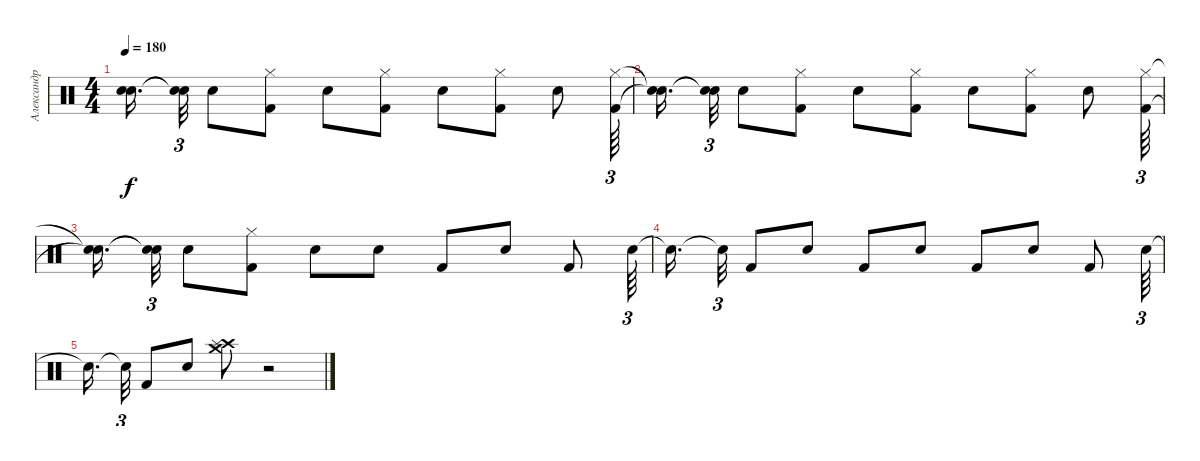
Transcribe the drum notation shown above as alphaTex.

\track ("Александр Карпухин" "Александр ") {instrument percussion}
\staff {score}
\articulation defaults
\ts (4 4)
\tempo 180
\clef neutral
\ks c
("Snare (hit)"{t} "Snare (hit)"{t}).16{d dy f beam splitsecondary} ("Snare (hit)"{t} "Snare (hit)"{t}).32{tu (3 2)} "Snare (hit) 2".8 ("Hi-Hat (closed)" "Kick (hit) 2").8 "Snare (hit) 2".8 ("Hi-Hat (closed)" "Kick (hit) 2").8 "Snare (hit) 2".8 ("Hi-Hat (closed)" "Kick (hit) 2").8 "Snare (hit) 2".8 ("Hi-Hat (closed)" "Kick (hit) 2").64{tu (3 2)} |
("Snare (hit)"{t} "Snare (hit)"{t}).16{d beam splitsecondary} ("Snare (hit)"{t} "Snare (hit)"{t}).32{tu (3 2)} "Snare (hit) 2".8 ("Hi-Hat (closed)" "Kick (hit) 2").8 "Snare (hit) 2".8 ("Hi-Hat (closed)" "Kick (hit) 2").8 "Snare (hit) 2".8 ("Hi-Hat (closed)" "Kick (hit) 2").8 "Snare (hit) 2".8 ("Hi-Hat (closed)" "Kick (hit) 2").64{tu (3 2)} |
("Snare (hit)"{t} "Snare (hit)"{t}).16{d beam splitsecondary} ("Snare (hit)"{t} "Snare (hit)"{t}).32{tu (3 2)} "Snare (hit) 2".8 ("Hi-Hat (closed)" "Kick (hit) 2").8 "Snare (hit) 2".8 "Snare (hit) 2".8 "Kick (hit) 2".8 "Snare (hit) 2".8 "Kick (hit) 2".8 "Snare (hit) 2".64{tu (3 2)} |
"Snare (hit)"{t}.16{d beam splitsecondary} "Snare (hit)"{t}.32{tu (3 2)} "Kick (hit) 2".8 "Snare (hit) 2".8 "Kick (hit) 2".8 "Snare (hit) 2".8 "Kick (hit) 2".8 "Snare (hit) 2".8 "Kick (hit) 2".8 "Snare (hit) 2".64{tu (3 2)} |
"Snare (hit)"{t}.16{d beam splitsecondary} "Snare (hit)"{t}.32{tu (3 2)} "Kick (hit) 2".8 "Snare (hit) 2".8 ("Crash high (hit)" "Crash medium (hit)" "Splash (hit)").8 r.2
